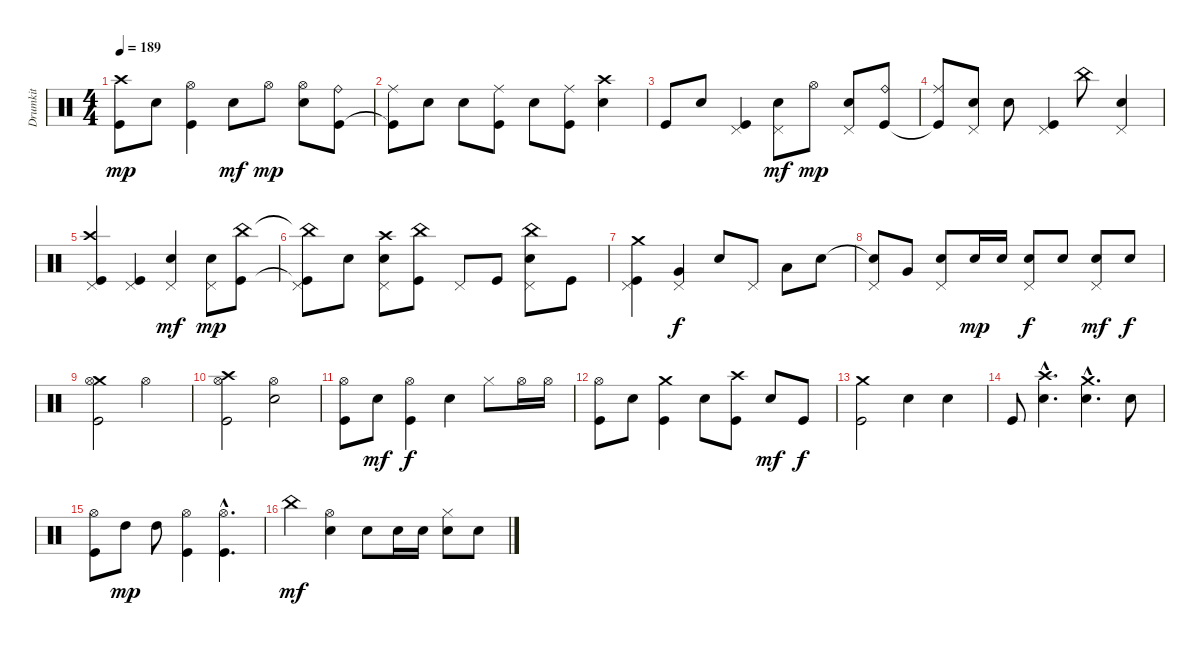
\track ("Drumkit" "Drumkit") {instrument percussion}
\staff {score}
\articulation defaults
\ts (4 4)
\tempo 189
\clef neutral
\ks c
("Kick (hit)" "Crash high (hit)").8{dy mp} "Snare (hit) 2".8 ("Kick (hit)" "Hi-Hat (open)").4 "Snare (hit) 2".8{dy mf} "Hi-Hat (open)".8{dy mp} ("Snare (hit) 2" "Hi-Hat (open)").8 ("Kick (hit)" "Ride (bell)").8 |
("Kick (hit)"{t} "Ride (middle)").8 "Snare (hit) 2".8 "Snare (hit) 2".8 ("Kick (hit)" "Ride (middle)").8 "Snare (hit) 2".8 ("Kick (hit)" "Ride (middle)").8 ("Snare (hit) 2" "Crash high (hit)").4 |
"Kick (hit)".8 "Snare (hit) 2".8 ("Kick (hit)" "Pedal Hi-Hat (hit)").4 ("Snare (hit) 2" "Pedal Hi-Hat (hit)").8{dy mf} "Hi-Hat (open)".8{dy mp} ("Snare (hit) 2" "Pedal Hi-Hat (hit)").8 ("Kick (hit)" "Ride (bell)").8 |
("Kick (hit)"{t} "Ride (middle)").8 ("Snare (hit) 2" "Pedal Hi-Hat (hit)").8 "Snare (hit) 2".8 ("Kick (hit)" "Pedal Hi-Hat (hit)").4 "China (hit)".8 ("Snare (hit) 2" "Pedal Hi-Hat (hit)").4 |
("Kick (hit)" "Crash high (hit)" "Pedal Hi-Hat (hit)").4 ("Kick (hit)" "Pedal Hi-Hat (hit)").4 ("Snare (hit) 2" "Pedal Hi-Hat (hit)").4{dy mf} ("Snare (hit) 2" "Pedal Hi-Hat (hit)").8{dy mp} ("Kick (hit)" "China (hit)").8 |
("Kick (hit)"{t} "China (hit)"{t} "Pedal Hi-Hat (hit)").8 "Snare (hit) 2".8 ("Snare (hit) 2" "Crash high (hit)" "Pedal Hi-Hat (hit)").8 ("Kick (hit)" "China (hit)").8 "Pedal Hi-Hat (hit)".8 "Kick (hit)".8 ("Snare (hit) 2" "China (hit)" "Pedal Hi-Hat (hit)").8 "Kick (hit)".8 |
("Kick (hit)" "Crash medium (hit)" "Pedal Hi-Hat (hit)").4 ("Pedal Hi-Hat (hit)" "Very Low Tom (hit)").4{dy f} "Snare (hit) 2".8 "Pedal Hi-Hat (hit)".8 "Low Tom (hit)".8 "Snare (hit) 2".8 |
("Snare (hit) 2"{t} "Pedal Hi-Hat (hit)").8 "Very Low Tom (hit)".8 ("Snare (hit) 2" "Pedal Hi-Hat (hit)").8 "Snare (hit) 2".16{dy mp} "Snare (hit) 2".16 ("Snare (hit) 2" "Pedal Hi-Hat (hit)").8{dy f} "Snare (hit) 2".8 ("Snare (hit) 2" "Pedal Hi-Hat (hit)").8{dy mf} "Snare (hit) 2".8{dy f} |
("Kick (hit)" "Crash medium (hit)" "Hi-Hat (open)").2 "Hi-Hat (open)".2 |
("Kick (hit)" "Crash high (hit)" "Hi-Hat (open)").2 ("Snare (hit) 2" "Hi-Hat (open)").2 |
("Kick (hit)" "Hi-Hat (open)").8 "Snare (hit) 2".8{dy mf} ("Kick (hit)" "Hi-Hat (open)").4{dy f} "Snare (hit) 2".4 "Hi-Hat (closed)".8 "Hi-Hat (open)".16 "Hi-Hat (open)".16 |
("Kick (hit)" "Hi-Hat (open)").8 "Snare (hit) 2".8 ("Kick (hit)" "Crash medium (hit)").4 "Snare (hit) 2".8 ("Crash high (hit)" "Kick (hit)").8 "Snare (hit) 2".8{dy mf} "Kick (hit)".8{dy f} |
("Kick (hit)" "Crash medium (hit)").2 "Snare (hit) 2".4 "Snare (hit) 2".4 |
"Kick (hit)".8 ("Snare (hit) 2"{hac} "Crash high (hit)"{hac}).4{d} ("Snare (hit) 2"{hac} "Crash medium (hit)"{hac}).4{d} "Snare (hit) 2".8 |
("Kick (hit)" "Hi-Hat (open)").8 "High Tom (hit)".8{dy mp} "High Tom (hit)".8 ("Hi-Hat (open)" "Kick (hit)").4 ("Kick (hit)"{hac} "Hi-Hat (open)"{hac}).4{d} |
"China (hit)".4{dy mf} ("Snare (hit) 2" "Hi-Hat (open)").4 "Snare (hit) 2".8 "Snare (hit) 2".16 "Snare (hit) 2".16 ("Snare (hit) 2" "Hi-Hat (closed)").8 "Snare (hit) 2".8
